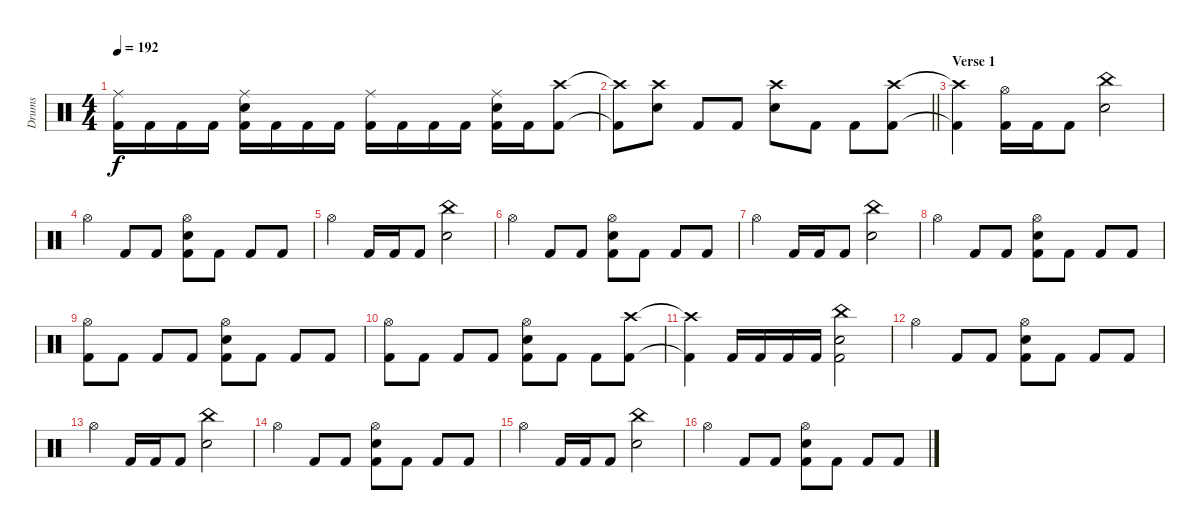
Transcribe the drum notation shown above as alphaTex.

\track ("Drums" "Drums") {instrument percussion}
\staff {score}
\articulation defaults
\ts (4 4)
\tempo 192
\clef neutral
\ks c
("Ride (middle)" "Kick (hit) 2").16{dy f} "Kick (hit) 2".16 "Kick (hit) 2".16 "Kick (hit) 2".16 ("Ride (middle)" "Electric Snare (hit)" "Kick (hit) 2").16 "Kick (hit) 2".16 "Kick (hit) 2".16 "Kick (hit) 2".16 ("Ride (middle)" "Kick (hit) 2").16 "Kick (hit) 2".16 "Kick (hit) 2".16 "Kick (hit) 2".16 ("Ride (middle)" "Electric Snare (hit)" "Kick (hit) 2").16 "Kick (hit) 2".16 ("Crash high (hit)" "Kick (hit) 2").8 |
\barLineRight lightlight
("Crash high (hit)"{t} "Kick (hit) 2"{t}).8 ("Crash high (hit)" "Electric Snare (hit)").8 "Kick (hit) 2".8 "Kick (hit) 2".8 ("Crash high (hit)" "Electric Snare (hit)").8 "Kick (hit) 2".8 "Kick (hit) 2".8 ("Crash high (hit)" "Kick (hit) 2").8 |
\section ("" "Verse 1")
("Crash high (hit)"{t} "Kick (hit) 2"{t}).4 ("Hi-Hat (open)" "Kick (hit) 2").16 "Kick (hit) 2".16 "Kick (hit) 2".8 ("China (hit)" "Electric Snare (hit)").2 |
"Hi-Hat (open)".4 "Kick (hit) 2".8 "Kick (hit) 2".8 ("Hi-Hat (open)" "Electric Snare (hit)" "Kick (hit) 2").8 "Kick (hit) 2".8 "Kick (hit) 2".8 "Kick (hit) 2".8 |
"Hi-Hat (open)".4 "Kick (hit) 2".16 "Kick (hit) 2".16 "Kick (hit) 2".8 ("China (hit)" "Electric Snare (hit)").2 |
"Hi-Hat (open)".4 "Kick (hit) 2".8 "Kick (hit) 2".8 ("Hi-Hat (open)" "Electric Snare (hit)" "Kick (hit) 2").8 "Kick (hit) 2".8 "Kick (hit) 2".8 "Kick (hit) 2".8 |
"Hi-Hat (open)".4 "Kick (hit) 2".16 "Kick (hit) 2".16 "Kick (hit) 2".8 ("China (hit)" "Electric Snare (hit)").2 |
"Hi-Hat (open)".4 "Kick (hit) 2".8 "Kick (hit) 2".8 ("Hi-Hat (open)" "Electric Snare (hit)" "Kick (hit) 2").8 "Kick (hit) 2".8 "Kick (hit) 2".8 "Kick (hit) 2".8 |
("Hi-Hat (open)" "Kick (hit) 2").8 "Kick (hit) 2".8 "Kick (hit) 2".8 "Kick (hit) 2".8 ("Hi-Hat (open)" "Electric Snare (hit)" "Kick (hit) 2").8 "Kick (hit) 2".8 "Kick (hit) 2".8 "Kick (hit) 2".8 |
("Hi-Hat (open)" "Kick (hit) 2").8 "Kick (hit) 2".8 "Kick (hit) 2".8 "Kick (hit) 2".8 ("Hi-Hat (open)" "Electric Snare (hit)" "Kick (hit) 2").8 "Kick (hit) 2".8 "Kick (hit) 2".8 ("Crash high (hit)" "Kick (hit) 2").8 |
("Crash high (hit)"{t} "Kick (hit) 2"{t}).4 "Kick (hit) 2".16 "Kick (hit) 2".16 "Kick (hit) 2".16 "Kick (hit) 2".16 ("China (hit)" "Electric Snare (hit)" "Kick (hit) 2").2 |
"Hi-Hat (open)".4 "Kick (hit) 2".8 "Kick (hit) 2".8 ("Hi-Hat (open)" "Electric Snare (hit)" "Kick (hit) 2").8 "Kick (hit) 2".8 "Kick (hit) 2".8 "Kick (hit) 2".8 |
"Hi-Hat (open)".4 "Kick (hit) 2".16 "Kick (hit) 2".16 "Kick (hit) 2".8 ("China (hit)" "Electric Snare (hit)").2 |
"Hi-Hat (open)".4 "Kick (hit) 2".8 "Kick (hit) 2".8 ("Hi-Hat (open)" "Electric Snare (hit)" "Kick (hit) 2").8 "Kick (hit) 2".8 "Kick (hit) 2".8 "Kick (hit) 2".8 |
"Hi-Hat (open)".4 "Kick (hit) 2".16 "Kick (hit) 2".16 "Kick (hit) 2".8 ("China (hit)" "Electric Snare (hit)").2 |
"Hi-Hat (open)".4 "Kick (hit) 2".8 "Kick (hit) 2".8 ("Hi-Hat (open)" "Electric Snare (hit)" "Kick (hit) 2").8 "Kick (hit) 2".8 "Kick (hit) 2".8 "Kick (hit) 2".8
